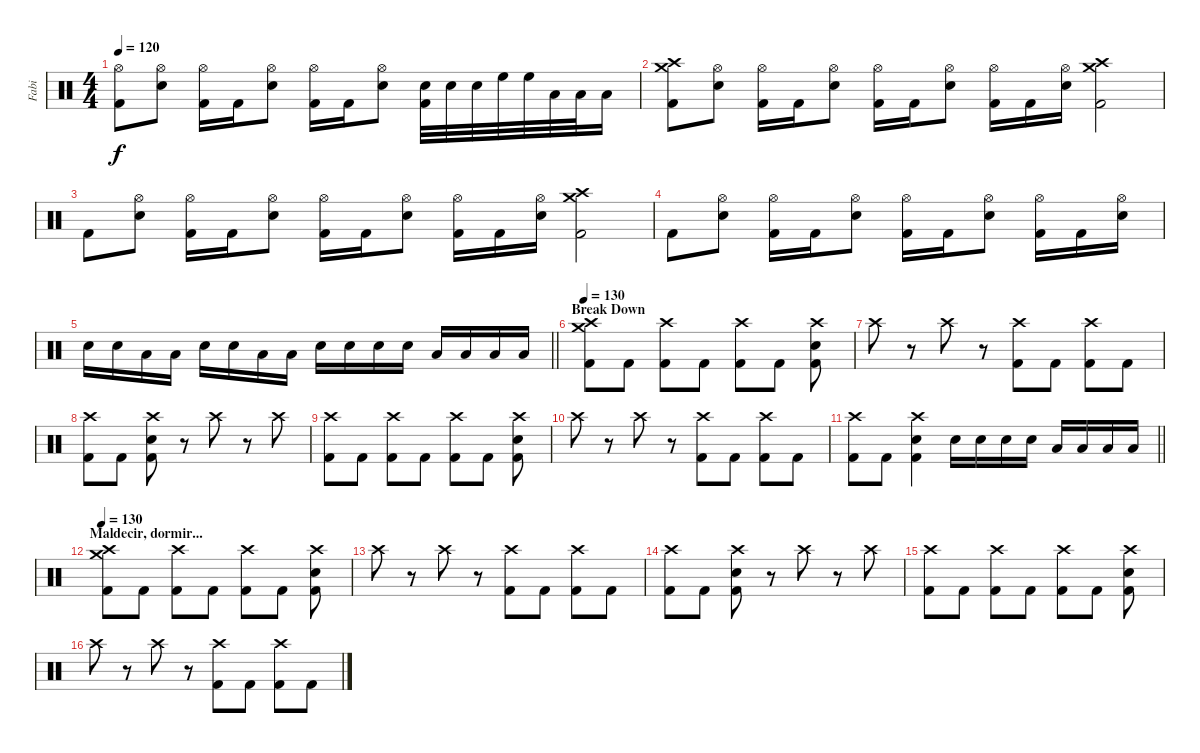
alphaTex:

\track ("Fabi" "Fabi") {instrument percussion}
\staff {score}
\articulation defaults
\ts (4 4)
\tempo 120
\clef neutral
\ks c
("Hi-Hat (open)" "Kick (hit) 2").8{dy f} ("Hi-Hat (open)" "Snare (hit) 2").8 ("Hi-Hat (open)" "Kick (hit) 2").16 "Kick (hit) 2".16 ("Hi-Hat (open)" "Snare (hit) 2").8 ("Hi-Hat (open)" "Kick (hit) 2").16 "Kick (hit) 2".16 ("Hi-Hat (open)" "Snare (hit) 2").8 ("Snare (hit) 2" "Kick (hit) 2").32 "Snare (hit) 2".32 "Snare (hit) 2".32 "High Floor Tom (hit)".32 "High Floor Tom (hit)".32 "Low Tom (hit)".32 "Low Tom (hit)".32 "Low Tom (hit)".16 |
("Crash high (hit)" "Crash medium (hit)" "Kick (hit) 2").8 ("Hi-Hat (open)" "Snare (hit) 2").8 ("Hi-Hat (open)" "Kick (hit) 2").16 "Kick (hit) 2".16 ("Hi-Hat (open)" "Snare (hit) 2").8 ("Hi-Hat (open)" "Kick (hit) 2").16 "Kick (hit) 2".16 ("Hi-Hat (open)" "Snare (hit) 2").8 ("Hi-Hat (open)" "Kick (hit) 2").16 "Kick (hit) 2".16 ("Hi-Hat (open)" "Snare (hit) 2").16 ("Crash high (hit)" "Crash medium (hit)" "Kick (hit) 2").2 |
"Kick (hit) 2".8 ("Hi-Hat (open)" "Snare (hit) 2").8 ("Hi-Hat (open)" "Kick (hit) 2").16 "Kick (hit) 2".16 ("Hi-Hat (open)" "Snare (hit) 2").8 ("Hi-Hat (open)" "Kick (hit) 2").16 "Kick (hit) 2".16 ("Hi-Hat (open)" "Snare (hit) 2").8 ("Hi-Hat (open)" "Kick (hit) 2").16 "Kick (hit) 2".16 ("Hi-Hat (open)" "Snare (hit) 2").16 ("Crash high (hit)" "Crash medium (hit)" "Kick (hit) 2").2 |
"Kick (hit) 2".8 ("Hi-Hat (open)" "Snare (hit) 2").8 ("Hi-Hat (open)" "Kick (hit) 2").16 "Kick (hit) 2".16 ("Hi-Hat (open)" "Snare (hit) 2").8 ("Hi-Hat (open)" "Kick (hit) 2").16 "Kick (hit) 2".16 ("Hi-Hat (open)" "Snare (hit) 2").8 ("Hi-Hat (open)" "Kick (hit) 2").16 "Kick (hit) 2".16 ("Hi-Hat (open)" "Snare (hit) 2").16 |
\barLineRight lightlight "Snare (hit) 2".16 "Snare (hit) 2".16 "Low Tom (hit)".16 "Low Tom (hit)".16 "Snare (hit) 2".16 "Snare (hit) 2".16 "Low Tom (hit)".16 "Low Tom (hit)".16 "Snare (hit) 2".16 "Snare (hit) 2".16 "Snare (hit) 2".16 "Snare (hit) 2".16 "Low Tom (hit)".16 "Low Tom (hit)".16 "Low Floor Tom (hit)".16 "Low Floor Tom (hit)".16
|
\section ("" "Break Down")
\tempo 130
("Crash medium (hit)" "Crash high (hit)" "Kick (hit) 2").8 "Kick (hit) 2".8 ("Crash high (hit)" "Kick (hit) 2").8 "Kick (hit) 2".8 ("Crash high (hit)" "Kick (hit) 2").8 "Kick (hit) 2".8 ("Crash high (hit)" "Snare (hit) 2" "Kick (hit) 2").8 |
"Crash high (hit)".8 r.8 "Crash high (hit)".8 r.8 ("Crash high (hit)" "Kick (hit) 2").8 "Kick (hit) 2".8 ("Crash high (hit)" "Kick (hit) 2").8 "Kick (hit) 2".8 |
("Crash high (hit)" "Kick (hit) 2").8 "Kick (hit) 2".8 ("Crash high (hit)" "Snare (hit) 2" "Kick (hit) 2").8 r.8 "Crash high (hit)".8 r.8 "Crash high (hit)".8 |
("Crash high (hit)" "Kick (hit) 2").8 "Kick (hit) 2".8 ("Crash high (hit)" "Kick (hit) 2").8 "Kick (hit) 2".8 ("Crash high (hit)" "Kick (hit) 2").8 "Kick (hit) 2".8 ("Crash high (hit)" "Snare (hit) 2" "Kick (hit) 2").8 |
"Crash high (hit)".8 r.8 "Crash high (hit)".8 r.8 ("Crash high (hit)" "Kick (hit) 2").8 "Kick (hit) 2".8 ("Crash high (hit)" "Kick (hit) 2").8 "Kick (hit) 2".8 |
\barLineRight lightlight
("Crash high (hit)" "Kick (hit) 2").8 "Kick (hit) 2".8 ("Crash high (hit)" "Snare (hit) 2" "Kick (hit) 2").4 "Snare (hit) 2".16 "Snare (hit) 2".16 "Snare (hit) 2".16 "Snare (hit) 2".16 "Low Tom (hit)".16 "Low Tom (hit)".16 "Low Tom (hit)".16 "Low Tom (hit)".16 |
\section ("" "Maldecir, dormir...")
\tempo 130
("Crash medium (hit)" "Crash high (hit)" "Kick (hit) 2").8 "Kick (hit) 2".8 ("Crash high (hit)" "Kick (hit) 2").8 "Kick (hit) 2".8 ("Crash high (hit)" "Kick (hit) 2").8 "Kick (hit) 2".8 ("Crash high (hit)" "Snare (hit) 2" "Kick (hit) 2").8 |
"Crash high (hit)".8 r.8 "Crash high (hit)".8 r.8 ("Crash high (hit)" "Kick (hit) 2").8 "Kick (hit) 2".8 ("Crash high (hit)" "Kick (hit) 2").8 "Kick (hit) 2".8 |
("Crash high (hit)" "Kick (hit) 2").8 "Kick (hit) 2".8 ("Crash high (hit)" "Snare (hit) 2" "Kick (hit) 2").8 r.8 "Crash high (hit)".8 r.8 "Crash high (hit)".8 |
("Crash high (hit)" "Kick (hit) 2").8 "Kick (hit) 2".8 ("Crash high (hit)" "Kick (hit) 2").8 "Kick (hit) 2".8 ("Crash high (hit)" "Kick (hit) 2").8 "Kick (hit) 2".8 ("Crash high (hit)" "Snare (hit) 2" "Kick (hit) 2").8 |
"Crash high (hit)".8 r.8 "Crash high (hit)".8 r.8 ("Crash high (hit)" "Kick (hit) 2").8 "Kick (hit) 2".8 ("Crash high (hit)" "Kick (hit) 2").8 "Kick (hit) 2".8
